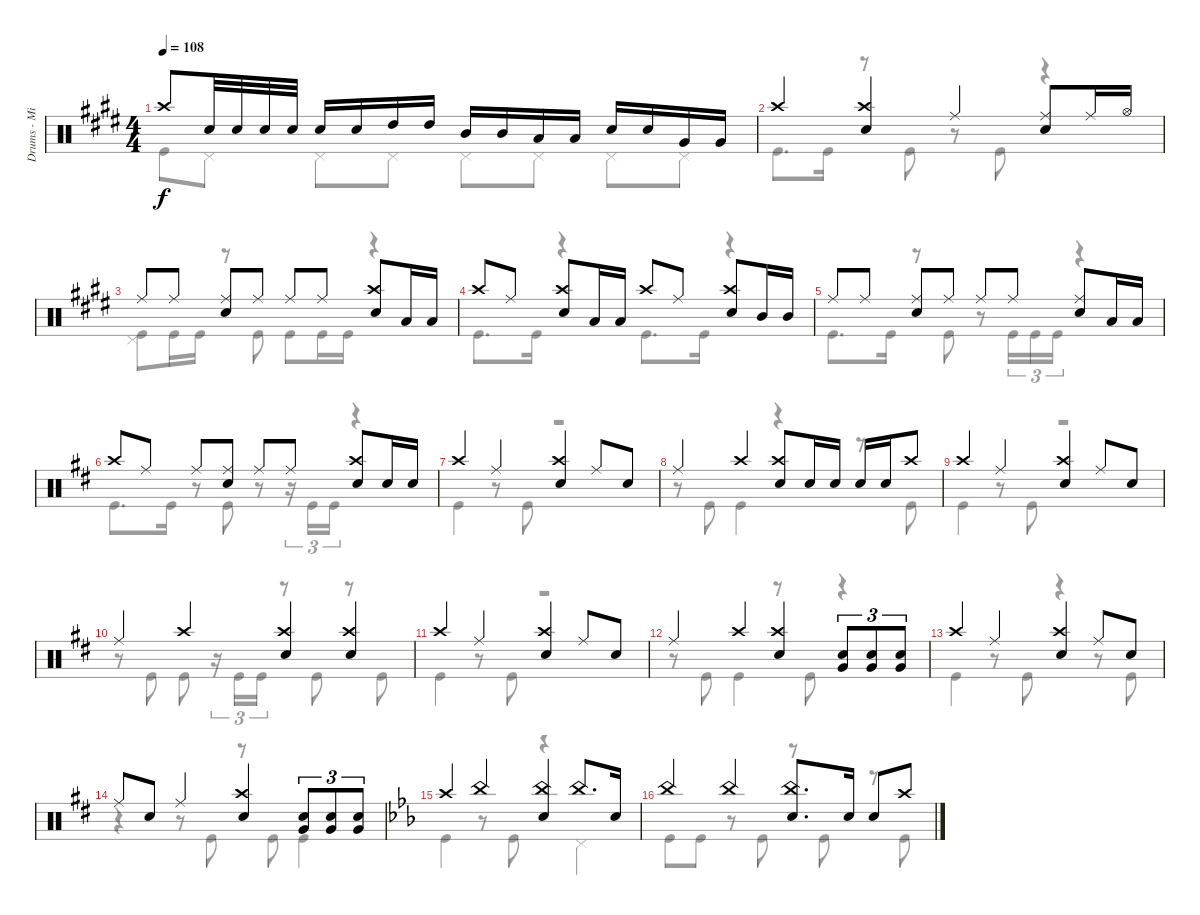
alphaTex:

\track ("Drums - Mike Portnoy" "Drums - Mi") {instrument percussion}
\staff {score}
\articulation defaults
\voice
\ts (4 4)
\tempo 108
\clef neutral
\ks e "Crash high (hit)".8{dy f} "Snare (hit) 2".32 "Snare (hit) 2".32 "Snare (hit) 2".32 "Snare (hit) 2".32 "Snare (hit) 2".16 "Snare (hit) 2".16 "High Tom (hit)".16 "High Tom (hit)".16 "Mid Tom (hit)".16 "Mid Tom (hit)".16 "Low Tom (hit)".16 "Low Tom (hit)".16 "Snare (hit) 2".16 "Snare (hit) 2".16 "Very Low Tom (hit)".16 "Very Low Tom (hit)".16
|
"Crash high (hit)".4 ("Crash high (hit)" "Snare (hit) 2").4 "Ride (middle)".4 ("Ride (middle)" "Snare (hit) 2").8 "Ride (middle)".16 "Hi-Hat (open)".16 |
"Ride (middle)".8 "Ride (middle)".8 ("Ride (middle)" "Snare (hit) 2").8 "Ride (middle)".8 "Ride (middle)".8 "Ride (middle)".8 ("Crash high (hit)" "Snare (hit) 2").8 "Low Tom (hit)".16 "Low Tom (hit)".16 |
"Crash high (hit)".8 "Ride (middle)".8 ("Crash high (hit)" "Snare (hit) 2").8 "Low Tom (hit)".16 "Low Tom (hit)".16 "Crash high (hit)".8 "Ride (middle)".8 ("Crash high (hit)" "Snare (hit) 2").8 "Mid Tom (hit)".16 "Mid Tom (hit)".16 |
"Ride (middle)".8 "Ride (middle)".8 ("Ride (middle)" "Snare (hit) 2").8 "Ride (middle)".8 "Ride (middle)".8 "Ride (middle)".8 ("Ride (middle)" "Snare (hit) 2").8 "Low Tom (hit)".16 "Low Tom (hit)".16 |
\ks d "Crash high (hit)".8 "Ride (middle)".8 "Ride (middle)".8
("Ride (middle)" "Snare (hit) 2").8 "Ride (middle)".8 "Ride (middle)".8 ("Crash high (hit)" "Snare (hit) 2").8 "Snare (hit) 2".16 "Snare (hit) 2".16 |
"Crash high (hit)".4 "Ride (middle)".4 ("Crash high (hit)" "Snare (hit) 2").4 "Ride (middle)".8 "Snare (hit) 2".8 |
"Ride (middle)".4 "Crash high (hit)".4 ("Crash high (hit)" "Snare (hit) 2").8 "Snare (hit) 2".16 "Snare (hit) 2".16 "Snare (hit) 2".16 "Snare (hit) 2".16 "Crash high (hit)".8 |
"Crash high (hit)".4 "Ride (middle)".4 ("Crash high (hit)" "Snare (hit) 2").4 "Ride (middle)".8 "Snare (hit) 2".8 |
"Ride (middle)".4 "Crash high (hit)".4 ("Crash high (hit)" "Snare (hit) 2").4 ("Crash high (hit)" "Snare (hit) 2").4 |
"Crash high (hit)".4 "Ride (middle)".4 ("Crash high (hit)" "Snare (hit) 2").4 "Ride (middle)".8 "Snare (hit) 2".8 |
"Ride (middle)".4 "Crash high (hit)".4 ("Crash high (hit)" "Snare (hit) 2").4 ("Very Low Tom (hit)" "Snare (hit) 2").8{tu (3 2)} ("Very Low Tom (hit)" "Snare (hit) 2").8{tu (3 2)} ("Very Low Tom (hit)" "Snare (hit) 2").8{tu (3 2)} |
"Crash high (hit)".4 "Ride (middle)".4 ("Crash high (hit)" "Snare (hit) 2").4 "Ride (middle)".8 "Snare (hit) 2".8 |
"Ride (middle)".8 "Snare (hit) 2".8 "Ride (middle)".4 ("Crash high (hit)" "Snare (hit) 2").4 ("Very Low Tom (hit)" "Snare (hit) 2").8{tu (3 2)} ("Very Low Tom (hit)" "Snare (hit) 2").8{tu (3 2)} ("Very Low Tom (hit)" "Snare (hit) 2").8{tu (3 2)} |
\ks eb "Crash high (hit)".4 "China (hit)".4
("China (hit)" "Snare (hit) 2").4 "China (hit)".8{d} "Snare (hit) 2".16 |
"China (hit)".4 "China (hit)".4 ("China (hit)" "Snare (hit) 2").8{d} "Snare (hit) 2".16 "Snare (hit) 2".8 "Crash high (hit)".8
\voice
\clef neutral
\ottava regular
\simile none
\ks e "Kick (hit)".8{dy f} "Pedal Hi-Hat (hit)".8 "Pedal Hi-Hat (hit)".8 "Pedal Hi-Hat (hit)".8 "Pedal Hi-Hat (hit)".8 "Pedal Hi-Hat (hit)".8 "Pedal Hi-Hat (hit)".8 "Pedal Hi-Hat (hit)".8
|
"Kick (hit)".8{d} "Kick (hit)".16 r.8 "Kick (hit)".8 r.8 "Kick (hit)".8 r.4 |
("Kick (hit)" "Pedal Hi-Hat (hit)").8 "Kick (hit)".16 "Kick (hit)".16 r.8 "Kick (hit)".8 "Kick (hit)".8 "Kick (hit)".16 "Kick (hit)".16 r.4 |
"Kick (hit)".8{d} "Kick (hit)".16 r.4 "Kick (hit)".8{d} "Kick (hit)".16 r.4 |
"Kick (hit)".8{d} "Kick (hit)".16 r.8 "Kick (hit)".8 r.8 "Kick (hit)".16{tu (3 2)} "Kick (hit)".16{tu (3 2)} "Kick (hit)".16{tu (3 2)} r.4 |
\ks d "Kick (hit)".8{d} "Kick (hit)".16
r.8 "Kick (hit)".8 r.8 r.16{tu (3 2)} "Kick (hit)".16{tu (3 2)} "Kick (hit)".16{tu (3 2)} r.4 |
"Kick (hit)".4 r.8 "Kick (hit)".8 r.2 |
r.8 "Kick (hit)".8 "Kick (hit)".4 r.4 r.8 "Kick (hit)".8 |
"Kick (hit)".4 r.8 "Kick (hit)".8 r.2 |
r.8 "Kick (hit)".8 "Kick (hit)".8 r.16{tu (3 2)} "Kick (hit)".16{tu (3 2)} "Kick (hit)".16{tu (3 2)} r.8 "Kick (hit)".8 r.8 "Kick (hit)".8 |
"Kick (hit)".4 r.8 "Kick (hit)".8 r.2 |
r.8 "Kick (hit)".8 "Kick (hit)".4 r.8 "Kick (hit)".8 r.4 |
"Kick (hit)".4 r.8 "Kick (hit)".8 r.4 r.8 "Kick (hit)".8 |
r.4 r.8 "Kick (hit)".8 r.8 "Kick (hit)".8 "Kick (hit)".4 |
\ks eb "Kick (hit)".4
r.8 "Kick (hit)".8 r.4 "Pedal Hi-Hat (hit)".4 |
"Kick (hit)".8 "Kick (hit)".8 r.8 "Kick (hit)".8 r.8 "Kick (hit)".8 r.8 "Kick (hit)".8
